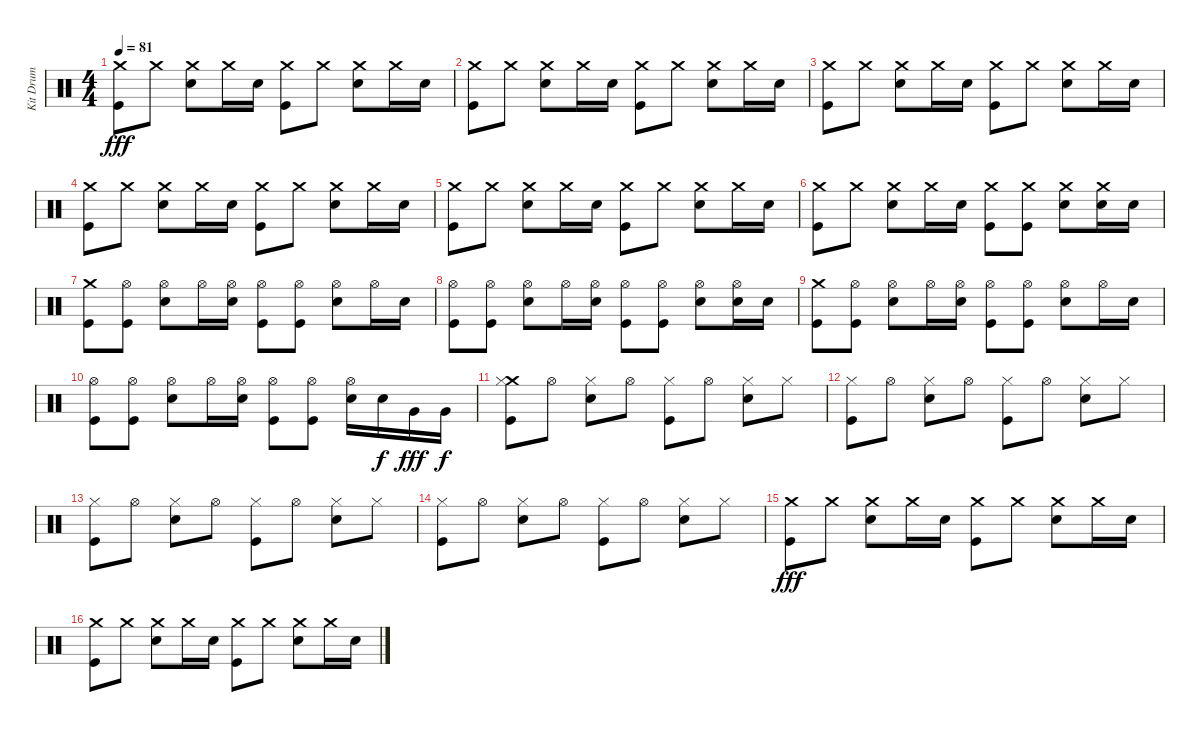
\track ("Kit Drum" "Kit Drum") {instrument percussion}
\staff {score}
\articulation defaults
\ts (4 4)
\tempo 81
\clef neutral
\ks c
("Crash medium (hit)" "Kick (hit)").8{dy fff} "Crash medium (hit)".8 ("Crash medium (hit)" "Electric Snare (hit)").8 "Crash medium (hit)".16 "Electric Snare (hit)".16 ("Crash medium (hit)" "Kick (hit)").8 "Crash medium (hit)".8 ("Crash medium (hit)" "Electric Snare (hit)").8 "Crash medium (hit)".16 "Electric Snare (hit)".16 |
("Crash medium (hit)" "Kick (hit)").8 "Crash medium (hit)".8 ("Crash medium (hit)" "Electric Snare (hit)").8 "Crash medium (hit)".16 "Electric Snare (hit)".16 ("Crash medium (hit)" "Kick (hit)").8 "Crash medium (hit)".8 ("Crash medium (hit)" "Electric Snare (hit)").8 "Crash medium (hit)".16 "Electric Snare (hit)".16 |
("Crash medium (hit)" "Kick (hit)").8 "Crash medium (hit)".8 ("Crash medium (hit)" "Electric Snare (hit)").8 "Crash medium (hit)".16 "Electric Snare (hit)".16 ("Crash medium (hit)" "Kick (hit)").8 "Crash medium (hit)".8 ("Crash medium (hit)" "Electric Snare (hit)").8 "Crash medium (hit)".16 "Electric Snare (hit)".16 |
("Crash medium (hit)" "Kick (hit)").8 "Crash medium (hit)".8 ("Crash medium (hit)" "Electric Snare (hit)").8 "Crash medium (hit)".16 "Electric Snare (hit)".16 ("Crash medium (hit)" "Kick (hit)").8 "Crash medium (hit)".8 ("Crash medium (hit)" "Electric Snare (hit)").8 "Crash medium (hit)".16 "Electric Snare (hit)".16 |
("Crash medium (hit)" "Kick (hit)").8 "Crash medium (hit)".8 ("Crash medium (hit)" "Electric Snare (hit)").8 "Crash medium (hit)".16 "Electric Snare (hit)".16 ("Crash medium (hit)" "Kick (hit)").8 "Crash medium (hit)".8 ("Crash medium (hit)" "Electric Snare (hit)").8 "Crash medium (hit)".16 "Electric Snare (hit)".16 |
("Crash medium (hit)" "Kick (hit)").8 "Crash medium (hit)".8 ("Crash medium (hit)" "Electric Snare (hit)").8 "Crash medium (hit)".16 "Electric Snare (hit)".16 ("Crash medium (hit)" "Kick (hit)").8 ("Crash medium (hit)" "Kick (hit)").8 ("Crash medium (hit)" "Electric Snare (hit)").8 ("Crash medium (hit)" "Electric Snare (hit)").16 "Electric Snare (hit)".16 |
("Crash medium (hit)" "Kick (hit)").8 ("Hi-Hat (open)" "Kick (hit)").8 ("Hi-Hat (open)" "Electric Snare (hit)").8 "Hi-Hat (open)".16 ("Hi-Hat (open)" "Electric Snare (hit)").16 ("Hi-Hat (open)" "Kick (hit)").8 ("Hi-Hat (open)" "Kick (hit)").8 ("Hi-Hat (open)" "Electric Snare (hit)").8 "Hi-Hat (open)".16 "Electric Snare (hit)".16 |
("Hi-Hat (open)" "Kick (hit)").8 ("Hi-Hat (open)" "Kick (hit)").8 ("Hi-Hat (open)" "Electric Snare (hit)").8 "Hi-Hat (open)".16 ("Hi-Hat (open)" "Electric Snare (hit)").16 ("Hi-Hat (open)" "Kick (hit)").8 ("Hi-Hat (open)" "Kick (hit)").8 ("Hi-Hat (open)" "Electric Snare (hit)").8 ("Hi-Hat (open)" "Electric Snare (hit)").16 "Electric Snare (hit)".16 |
("Crash medium (hit)" "Kick (hit)").8 ("Hi-Hat (open)" "Kick (hit)").8 ("Hi-Hat (open)" "Electric Snare (hit)").8 "Hi-Hat (open)".16 ("Hi-Hat (open)" "Electric Snare (hit)").16 ("Hi-Hat (open)" "Kick (hit)").8 ("Hi-Hat (open)" "Kick (hit)").8 ("Hi-Hat (open)" "Electric Snare (hit)").8 "Hi-Hat (open)".16 "Electric Snare (hit)".16 |
("Hi-Hat (open)" "Kick (hit)").8 ("Hi-Hat (open)" "Kick (hit)").8 ("Hi-Hat (open)" "Electric Snare (hit)").8 "Hi-Hat (open)".16 ("Hi-Hat (open)" "Electric Snare (hit)").16 ("Hi-Hat (open)" "Kick (hit)").8 ("Hi-Hat (open)" "Kick (hit)").8 ("Hi-Hat (open)" "Electric Snare (hit)").16 "Electric Snare (hit)".16{dy f} "Very Low Tom (hit)".16{dy fff} "Very Low Tom (hit)".16{dy f} |
("Crash medium (hit)" "Hi-Hat (closed)" "Kick (hit)").8 "Hi-Hat (open)".8 ("Hi-Hat (closed)" "Snare (hit) 2").8 "Hi-Hat (open)".8 ("Hi-Hat (closed)" "Kick (hit)").8 "Hi-Hat (open)".8 ("Hi-Hat (closed)" "Snare (hit) 2").8 "Hi-Hat (closed)".8 |
("Hi-Hat (closed)" "Kick (hit)").8 "Hi-Hat (open)".8 ("Hi-Hat (closed)" "Snare (hit) 2").8 "Hi-Hat (open)".8 ("Hi-Hat (closed)" "Kick (hit)").8 "Hi-Hat (open)".8 ("Hi-Hat (closed)" "Snare (hit) 2").8 "Hi-Hat (closed)".8 |
("Hi-Hat (closed)" "Kick (hit)").8 "Hi-Hat (open)".8 ("Hi-Hat (closed)" "Snare (hit) 2").8 "Hi-Hat (open)".8 ("Hi-Hat (closed)" "Kick (hit)").8 "Hi-Hat (open)".8 ("Hi-Hat (closed)" "Snare (hit) 2").8 "Hi-Hat (closed)".8 |
("Hi-Hat (closed)" "Kick (hit)").8 "Hi-Hat (open)".8 ("Hi-Hat (closed)" "Snare (hit) 2").8 "Hi-Hat (open)".8 ("Hi-Hat (closed)" "Kick (hit)").8 "Hi-Hat (open)".8 ("Hi-Hat (closed)" "Snare (hit) 2").8 "Hi-Hat (closed)".8 |
("Crash medium (hit)" "Kick (hit)").8{dy fff} "Crash medium (hit)".8 ("Crash medium (hit)" "Electric Snare (hit)").8 "Crash medium (hit)".16 "Electric Snare (hit)".16 ("Crash medium (hit)" "Kick (hit)").8 "Crash medium (hit)".8 ("Crash medium (hit)" "Electric Snare (hit)").8 "Crash medium (hit)".16 "Electric Snare (hit)".16 |
("Crash medium (hit)" "Kick (hit)").8 "Crash medium (hit)".8 ("Crash medium (hit)" "Electric Snare (hit)").8 "Crash medium (hit)".16 "Electric Snare (hit)".16 ("Crash medium (hit)" "Kick (hit)").8 "Crash medium (hit)".8 ("Crash medium (hit)" "Electric Snare (hit)").8 "Crash medium (hit)".16 "Electric Snare (hit)".16
